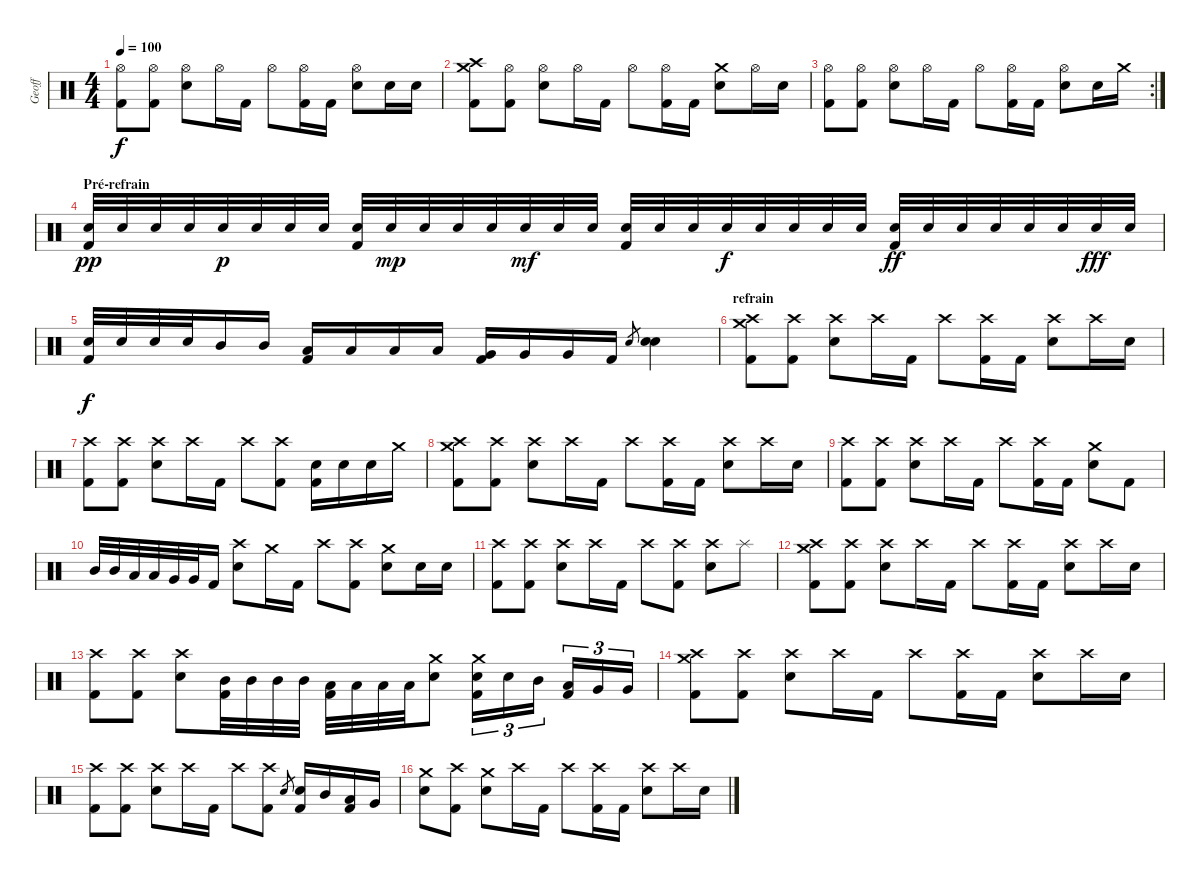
\track ("Geoff" "Geoff") {instrument percussion}
\staff {score}
\articulation defaults
\ts (4 4)
\tempo 100
\clef neutral
\ks c
("Hi-Hat (open)" "Kick (hit) 2").8{dy f} ("Hi-Hat (open)" "Kick (hit) 2").8 ("Hi-Hat (open)" "Electric Snare (hit)").8 "Hi-Hat (open)".16 "Kick (hit) 2".16 "Hi-Hat (open)".8 ("Hi-Hat (open)" "Kick (hit) 2").16 "Kick (hit) 2".16 ("Hi-Hat (open)" "Electric Snare (hit)").8 "Electric Snare (hit)".16 "Electric Snare (hit)".16 |
("Crash high (hit)" "Crash medium (hit)" "Kick (hit) 2").8 ("Hi-Hat (open)" "Kick (hit) 2").8 ("Hi-Hat (open)" "Electric Snare (hit)").8 "Hi-Hat (open)".16 "Kick (hit) 2".16 "Hi-Hat (open)".8 ("Hi-Hat (open)" "Kick (hit) 2").16 "Kick (hit) 2".16 ("Crash medium (hit)" "Electric Snare (hit)").8 "Hi-Hat (open)".16 "Electric Snare (hit)".16 |
\rc 2
("Hi-Hat (open)" "Kick (hit) 2").8 ("Hi-Hat (open)" "Kick (hit) 2").8 ("Hi-Hat (open)" "Electric Snare (hit)").8 "Hi-Hat (open)".16 "Kick (hit) 2".16 "Hi-Hat (open)".8 ("Hi-Hat (open)" "Kick (hit) 2").16 "Kick (hit) 2".16 ("Hi-Hat (open)" "Electric Snare (hit)").8 "Electric Snare (hit)".16 "Crash medium (hit)".16 |
\section ("" "Pré-refrain")
("Electric Snare (hit)" "Kick (hit) 2").32{dy pp} "Electric Snare (hit)".32 "Electric Snare (hit)".32 "Electric Snare (hit)".32 "Electric Snare (hit)".32{dy p} "Electric Snare (hit)".32 "Electric Snare (hit)".32 "Electric Snare (hit)".32 ("Electric Snare (hit)" "Kick (hit) 2").32 "Electric Snare (hit)".32{dy mp} "Electric Snare (hit)".32 "Electric Snare (hit)".32 "Electric Snare (hit)".32 "Electric Snare (hit)".32{dy mf} "Electric Snare (hit)".32 "Electric Snare (hit)".32 ("Electric Snare (hit)" "Kick (hit) 2").32 "Electric Snare (hit)".32 "Electric Snare (hit)".32 "Electric Snare (hit)".32{dy f} "Electric Snare (hit)".32 "Electric Snare (hit)".32 "Electric Snare (hit)".32 "Electric Snare (hit)".32 ("Electric Snare (hit)" "Kick (hit) 2").32{dy ff} "Electric Snare (hit)".32 "Electric Snare (hit)".32 "Electric Snare (hit)".32 "Electric Snare (hit)".32 "Electric Snare (hit)".32 "Electric Snare (hit)".32{dy fff} "Electric Snare (hit)".32 |
("Electric Snare (hit)" "Kick (hit) 2").32{dy f} "Electric Snare (hit)".32 "Electric Snare (hit)".32 "Electric Snare (hit)".32 "Mid Tom (hit)".16 "Mid Tom (hit)".16 ("Low Tom (hit)" "Kick (hit) 2").16 "Low Tom (hit)".16 "Low Tom (hit)".16 "Low Tom (hit)".16 ("Very Low Tom (hit)" "Kick (hit) 2").16 "Very Low Tom (hit)".16 "Very Low Tom (hit)".16 "Kick (hit) 2".16 "Electric Snare (hit)".8{gr} ("Electric Snare (hit)" "Electric Snare (hit)").4 |
\section ("" "refrain")
("Crash high (hit)" "Crash medium (hit)" "Kick (hit) 2").8 ("Crash high (hit)" "Kick (hit) 2").8 ("Crash high (hit)" "Electric Snare (hit)").8 "Crash high (hit)".16 "Kick (hit) 2".16 "Crash high (hit)".8 ("Crash high (hit)" "Kick (hit) 2").16 "Kick (hit) 2".16 ("Crash high (hit)" "Electric Snare (hit)").8 "Crash high (hit)".16 "Electric Snare (hit)".16 |
("Crash high (hit)" "Kick (hit) 2").8 ("Crash high (hit)" "Kick (hit) 2").8 ("Crash high (hit)" "Electric Snare (hit)").8 "Crash high (hit)".16 "Kick (hit) 2".16 "Crash high (hit)".8 ("Crash high (hit)" "Kick (hit) 2").8 ("Electric Snare (hit)" "Kick (hit) 2").16 "Electric Snare (hit)".16 "Electric Snare (hit)".16 "Crash medium (hit)".16 |
("Crash high (hit)" "Crash medium (hit)" "Kick (hit) 2").8 ("Crash high (hit)" "Kick (hit) 2").8 ("Crash high (hit)" "Electric Snare (hit)").8 "Crash high (hit)".16 "Kick (hit) 2".16 "Crash high (hit)".8 ("Crash high (hit)" "Kick (hit) 2").16 "Kick (hit) 2".16 ("Crash high (hit)" "Electric Snare (hit)").8 "Crash high (hit)".16 "Electric Snare (hit)".16 |
("Crash high (hit)" "Kick (hit) 2").8 ("Crash high (hit)" "Kick (hit) 2").8 ("Crash high (hit)" "Electric Snare (hit)").8 "Crash high (hit)".16 "Kick (hit) 2".16 "Crash high (hit)".8 ("Crash high (hit)" "Kick (hit) 2").16 "Kick (hit) 2".16 ("Crash medium (hit)" "Electric Snare (hit)").8 "Kick (hit) 2".8 |
"Mid Tom (hit)".32 "Mid Tom (hit)".32 "Low Tom (hit)".32 "Low Tom (hit)".32 "Very Low Tom (hit)".32 "Very Low Tom (hit)".32 "Kick (hit) 2".16 ("Crash high (hit)" "Electric Snare (hit)").8 "Crash medium (hit)".16 "Kick (hit) 2".16 "Crash high (hit)".8 ("Crash high (hit)" "Kick (hit) 2").8 ("Crash medium (hit)" "Electric Snare (hit)").8 "Electric Snare (hit)".16 "Electric Snare (hit)".16 |
("Crash high (hit)" "Kick (hit) 2").8 ("Crash high (hit)" "Kick (hit) 2").8 ("Crash high (hit)" "Electric Snare (hit)").8 "Crash high (hit)".16 "Kick (hit) 2".16 "Crash high (hit)".8 ("Crash high (hit)" "Kick (hit) 2").8 ("Crash high (hit)" "Electric Snare (hit)").8 "Splash (hit)".8 |
("Crash high (hit)" "Crash medium (hit)" "Kick (hit) 2").8 ("Crash high (hit)" "Kick (hit) 2").8 ("Crash high (hit)" "Electric Snare (hit)").8 "Crash high (hit)".16 "Kick (hit) 2".16 "Crash high (hit)".8 ("Crash high (hit)" "Kick (hit) 2").16 "Kick (hit) 2".16 ("Crash high (hit)" "Electric Snare (hit)").8 "Crash high (hit)".16 "Electric Snare (hit)".16 |
("Crash high (hit)" "Kick (hit) 2").8 ("Crash high (hit)" "Kick (hit) 2").8 ("Crash high (hit)" "Electric Snare (hit)").8 ("Mid Tom (hit)" "Kick (hit) 2").32 "Mid Tom (hit)".32 "Mid Tom (hit)".32 "Mid Tom (hit)".32 ("Low Tom (hit)" "Kick (hit) 2").32 "Low Tom (hit)".32 "Low Tom (hit)".32 "Low Tom (hit)".32 ("Crash medium (hit)" "Electric Snare (hit)").8 ("Crash medium (hit)" "Electric Snare (hit)" "Kick (hit) 2").16{tu (3 2)} "Electric Snare (hit)".16{tu (3 2)} "Mid Tom (hit)".16{tu (3 2)} ("Low Tom (hit)" "Kick (hit) 2").16{tu (3 2)} "Very Low Tom (hit)".16{tu (3 2)} "Very Low Tom (hit)".16{tu (3 2)} |
("Crash high (hit)" "Crash medium (hit)" "Kick (hit) 2").8 ("Crash high (hit)" "Kick (hit) 2").8 ("Crash high (hit)" "Electric Snare (hit)").8 "Crash high (hit)".16 "Kick (hit) 2".16 "Crash high (hit)".8 ("Crash high (hit)" "Kick (hit) 2").16 "Kick (hit) 2".16 ("Crash high (hit)" "Electric Snare (hit)").8 "Crash high (hit)".16 "Electric Snare (hit)".16 |
("Crash high (hit)" "Kick (hit) 2").8 ("Crash high (hit)" "Kick (hit) 2").8 ("Crash high (hit)" "Electric Snare (hit)").8 "Crash high (hit)".16 "Kick (hit) 2".16 "Crash high (hit)".8 ("Crash high (hit)" "Kick (hit) 2").8 "Electric Snare (hit)".8{gr} ("Electric Snare (hit)" "Kick (hit) 2").16 "Mid Tom (hit)".16 ("Low Tom (hit)" "Kick (hit) 2").16 "Very Low Tom (hit)".16 |
("Crash medium (hit)" "Electric Snare (hit)").8 ("Crash high (hit)" "Kick (hit) 2").8 ("Crash medium (hit)" "Electric Snare (hit)").8 "Crash high (hit)".16 "Kick (hit) 2".16 "Crash high (hit)".8 ("Crash high (hit)" "Kick (hit) 2").16 "Kick (hit) 2".16 ("Crash high (hit)" "Electric Snare (hit)").8 "Crash high (hit)".16 "Electric Snare (hit)".16
